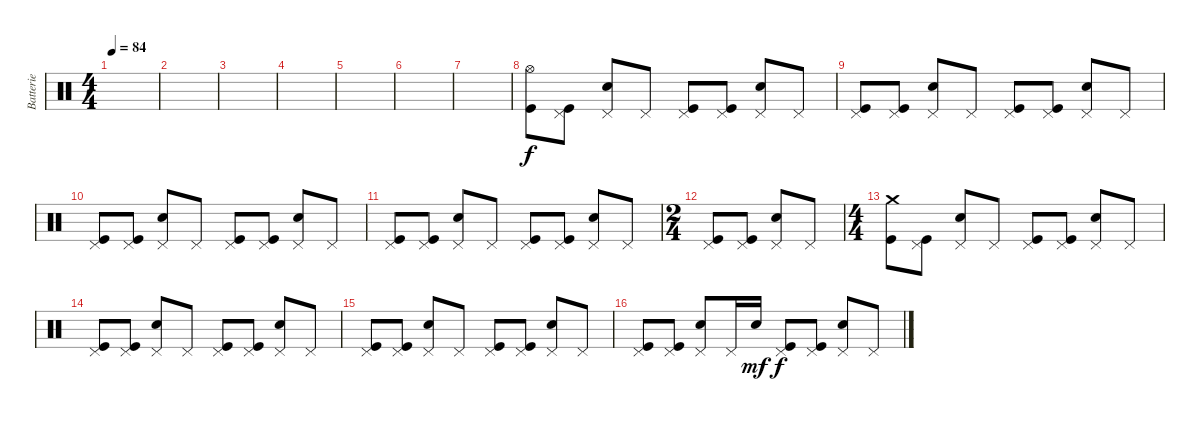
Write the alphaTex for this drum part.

\track ("Batterie" "Batterie") {instrument percussion}
\staff {score}
\articulation defaults
\ts (4 4)
\tempo 84
\clef neutral
\ks c
|
|
|
|
|
|
|
("Hi-Hat (open)" "Kick (hit)").8 ("Pedal Hi-Hat (hit)" "Kick (hit)").8 ("Pedal Hi-Hat (hit)" "Electric Snare (hit)").8 "Pedal Hi-Hat (hit)".8 ("Pedal Hi-Hat (hit)" "Kick (hit)").8 ("Pedal Hi-Hat (hit)" "Kick (hit)").8 ("Pedal Hi-Hat (hit)" "Electric Snare (hit)").8 "Pedal Hi-Hat (hit)".8 |
("Pedal Hi-Hat (hit)" "Kick (hit)").8 ("Pedal Hi-Hat (hit)" "Kick (hit)").8 ("Pedal Hi-Hat (hit)" "Electric Snare (hit)").8 "Pedal Hi-Hat (hit)".8 ("Pedal Hi-Hat (hit)" "Kick (hit)").8 ("Pedal Hi-Hat (hit)" "Kick (hit)").8 ("Pedal Hi-Hat (hit)" "Electric Snare (hit)").8 "Pedal Hi-Hat (hit)".8 |
("Pedal Hi-Hat (hit)" "Kick (hit)").8 ("Pedal Hi-Hat (hit)" "Kick (hit)").8 ("Pedal Hi-Hat (hit)" "Electric Snare (hit)").8 "Pedal Hi-Hat (hit)".8 ("Pedal Hi-Hat (hit)" "Kick (hit)").8 ("Pedal Hi-Hat (hit)" "Kick (hit)").8 ("Pedal Hi-Hat (hit)" "Electric Snare (hit)").8 "Pedal Hi-Hat (hit)".8 |
("Pedal Hi-Hat (hit)" "Kick (hit)").8 ("Pedal Hi-Hat (hit)" "Kick (hit)").8 ("Pedal Hi-Hat (hit)" "Electric Snare (hit)").8 "Pedal Hi-Hat (hit)".8 ("Pedal Hi-Hat (hit)" "Kick (hit)").8 ("Pedal Hi-Hat (hit)" "Kick (hit)").8 ("Pedal Hi-Hat (hit)" "Electric Snare (hit)").8 "Pedal Hi-Hat (hit)".8 |
\ts (2 4)
("Pedal Hi-Hat (hit)" "Kick (hit)").8 ("Pedal Hi-Hat (hit)" "Kick (hit)").8 ("Pedal Hi-Hat (hit)" "Electric Snare (hit)").8 "Pedal Hi-Hat (hit)".8 |
\ts (4 4)
("Crash medium (hit)" "Kick (hit)").8 ("Pedal Hi-Hat (hit)" "Kick (hit)").8 ("Pedal Hi-Hat (hit)" "Electric Snare (hit)").8 "Pedal Hi-Hat (hit)".8 ("Pedal Hi-Hat (hit)" "Kick (hit)").8 ("Pedal Hi-Hat (hit)" "Kick (hit)").8 ("Pedal Hi-Hat (hit)" "Electric Snare (hit)").8 "Pedal Hi-Hat (hit)".8 |
("Pedal Hi-Hat (hit)" "Kick (hit)").8 ("Pedal Hi-Hat (hit)" "Kick (hit)").8 ("Pedal Hi-Hat (hit)" "Electric Snare (hit)").8 "Pedal Hi-Hat (hit)".8 ("Pedal Hi-Hat (hit)" "Kick (hit)").8 ("Pedal Hi-Hat (hit)" "Kick (hit)").8 ("Pedal Hi-Hat (hit)" "Electric Snare (hit)").8 "Pedal Hi-Hat (hit)".8 |
("Pedal Hi-Hat (hit)" "Kick (hit)").8 ("Pedal Hi-Hat (hit)" "Kick (hit)").8 ("Pedal Hi-Hat (hit)" "Electric Snare (hit)").8 "Pedal Hi-Hat (hit)".8 ("Pedal Hi-Hat (hit)" "Kick (hit)").8 ("Pedal Hi-Hat (hit)" "Kick (hit)").8 ("Pedal Hi-Hat (hit)" "Electric Snare (hit)").8 "Pedal Hi-Hat (hit)".8 |
("Pedal Hi-Hat (hit)" "Kick (hit)").8 ("Pedal Hi-Hat (hit)" "Kick (hit)").8 ("Pedal Hi-Hat (hit)" "Electric Snare (hit)").8 "Pedal Hi-Hat (hit)".16 "Snare (hit) 2".16{dy mf} ("Pedal Hi-Hat (hit)" "Kick (hit)").8{dy f} ("Pedal Hi-Hat (hit)" "Kick (hit)").8 ("Pedal Hi-Hat (hit)" "Electric Snare (hit)").8 "Pedal Hi-Hat (hit)".8
